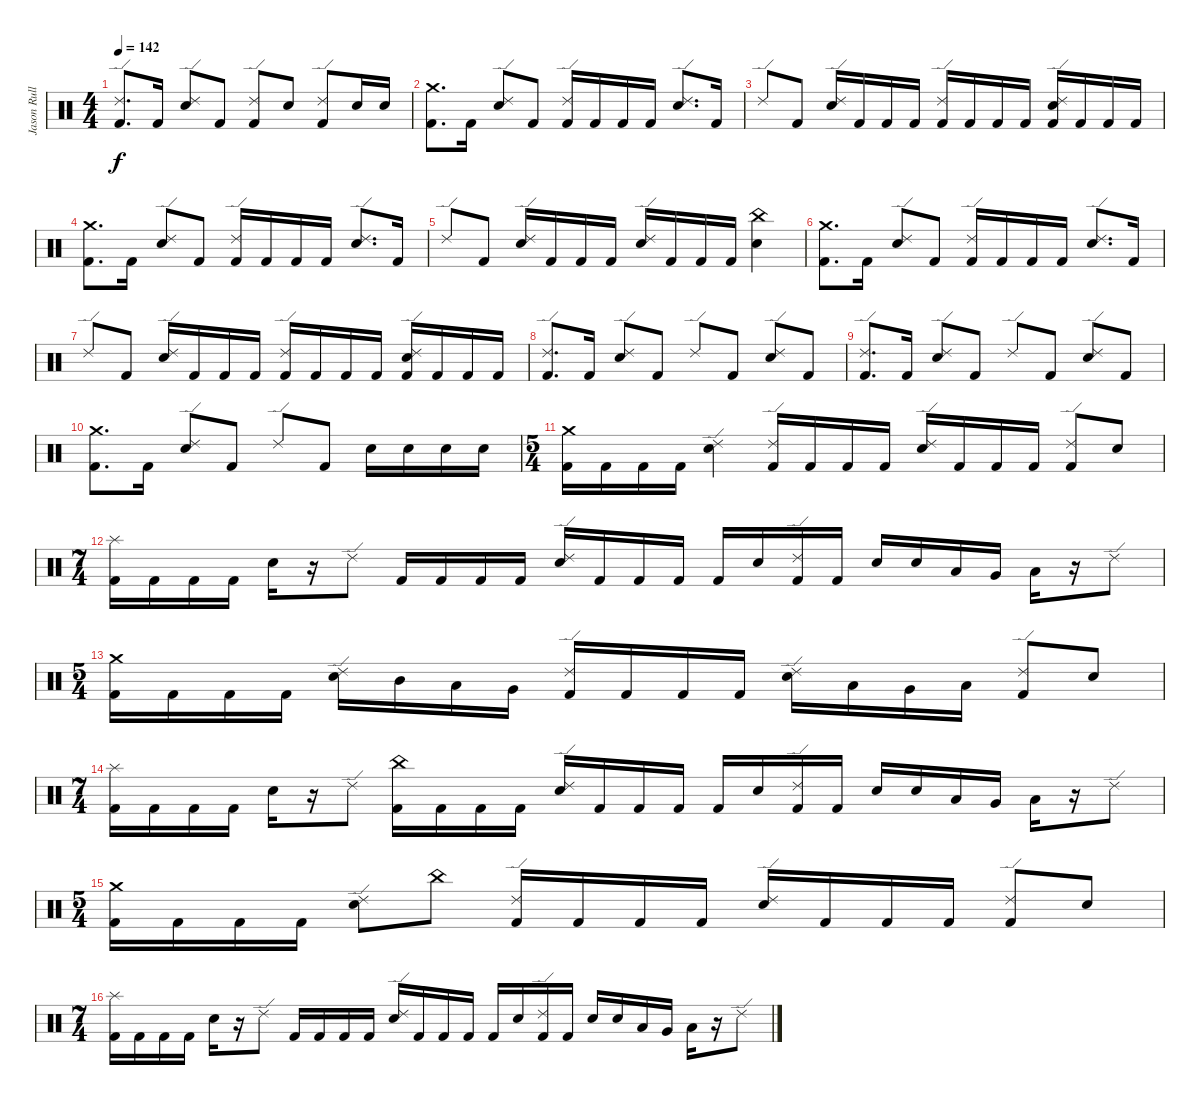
\track ("Jason Rullo (drums)" "Jason Rull") {solo instrument percussion}
\staff {score}
\articulation defaults
\ts (4 4)
\tempo 142
\clef neutral
\ks c
("Ride (edge) 2" "Kick (hit) 2").8{d dy f} "Kick (hit) 2".16 ("Ride (edge) 2" "Electric Snare (hit)").8 "Kick (hit) 2".8 ("Kick (hit) 2" "Ride (edge) 2").8 "Electric Snare (hit)".8 ("Ride (edge) 2" "Kick (hit) 2").8 "Electric Snare (hit)".16 "Electric Snare (hit)".16 |
("Crash medium (hit)" "Kick (hit) 2").8{d} "Kick (hit) 2".16 ("Ride (edge) 2" "Electric Snare (hit)").8 "Kick (hit) 2".8 ("Ride (edge) 2" "Kick (hit) 2").16 "Kick (hit) 2".16 "Kick (hit) 2".16 "Kick (hit) 2".16 ("Ride (edge) 2" "Electric Snare (hit)").8{d} "Kick (hit) 2".16 |
"Ride (edge) 2".8 "Kick (hit) 2".8 ("Electric Snare (hit)" "Ride (edge) 2").16 "Kick (hit) 2".16 "Kick (hit) 2".16 "Kick (hit) 2".16 ("Kick (hit) 2" "Ride (edge) 2").16 "Kick (hit) 2".16 "Kick (hit) 2".16 "Kick (hit) 2".16 ("Electric Snare (hit)" "Kick (hit) 2" "Ride (edge) 2").16 "Kick (hit) 2".16 "Kick (hit) 2".16 "Kick (hit) 2".16 |
("Crash medium (hit)" "Kick (hit) 2").8{d} "Kick (hit) 2".16 ("Ride (edge) 2" "Electric Snare (hit)").8 "Kick (hit) 2".8 ("Ride (edge) 2" "Kick (hit) 2").16 "Kick (hit) 2".16 "Kick (hit) 2".16 "Kick (hit) 2".16 ("Ride (edge) 2" "Electric Snare (hit)").8{d} "Kick (hit) 2".16 |
"Ride (edge) 2".8 "Kick (hit) 2".8 ("Electric Snare (hit)" "Ride (edge) 2").16 "Kick (hit) 2".16 "Kick (hit) 2".16 "Kick (hit) 2".16 ("Electric Snare (hit)" "Ride (edge) 2").16 "Kick (hit) 2".16 "Kick (hit) 2".16 "Kick (hit) 2".16 ("China (hit)" "Electric Snare (hit)").4 |
("Crash medium (hit)" "Kick (hit) 2").8{d} "Kick (hit) 2".16 ("Ride (edge) 2" "Electric Snare (hit)").8 "Kick (hit) 2".8 ("Ride (edge) 2" "Kick (hit) 2").16 "Kick (hit) 2".16 "Kick (hit) 2".16 "Kick (hit) 2".16 ("Ride (edge) 2" "Electric Snare (hit)").8{d} "Kick (hit) 2".16 |
"Ride (edge) 2".8 "Kick (hit) 2".8 ("Electric Snare (hit)" "Ride (edge) 2").16 "Kick (hit) 2".16 "Kick (hit) 2".16 "Kick (hit) 2".16 ("Kick (hit) 2" "Ride (edge) 2").16 "Kick (hit) 2".16 "Kick (hit) 2".16 "Kick (hit) 2".16 ("Electric Snare (hit)" "Kick (hit) 2" "Ride (edge) 2").16 "Kick (hit) 2".16 "Kick (hit) 2".16 "Kick (hit) 2".16 |
("Ride (edge) 2" "Kick (hit) 2").8{d} "Kick (hit) 2".16 ("Ride (edge) 2" "Electric Snare (hit)").8 "Kick (hit) 2".8 "Ride (edge) 2".8 "Kick (hit) 2".8 ("Ride (edge) 2" "Electric Snare (hit)").8 "Kick (hit) 2".8 |
("Ride (edge) 2" "Kick (hit) 2").8{d} "Kick (hit) 2".16 ("Ride (edge) 2" "Electric Snare (hit)").8 "Kick (hit) 2".8 "Ride (edge) 2".8 "Kick (hit) 2".8 ("Ride (edge) 2" "Electric Snare (hit)").8 "Kick (hit) 2".8 |
("Crash medium (hit)" "Kick (hit) 2").8{d} "Kick (hit) 2".16 ("Ride (edge) 2" "Electric Snare (hit)").8 "Kick (hit) 2".8 "Ride (edge) 2".8 "Kick (hit) 2".8 "Electric Snare (hit)".16 "Electric Snare (hit)".16 "Electric Snare (hit)".16 "Electric Snare (hit)".16 |
\ts (5 4)
("Crash medium (hit)" "Kick (hit) 2").16{volume 16 balance 8} "Kick (hit) 2".16 "Kick (hit) 2".16 "Kick (hit) 2".16 ("Ride (edge) 2" "Electric Snare (hit)").4 ("Ride (edge) 2" "Kick (hit) 2").16 "Kick (hit) 2".16 "Kick (hit) 2".16 "Kick (hit) 2".16 ("Ride (edge) 2" "Electric Snare (hit)").16 "Kick (hit) 2".16 "Kick (hit) 2".16 "Kick (hit) 2".16 ("Ride (edge) 2" "Kick (hit) 2").8 "Electric Snare (hit)".8 |
\ts (7 4)
("Splash (hit)" "Kick (hit) 2").16 "Kick (hit) 2".16 "Kick (hit) 2".16 "Kick (hit) 2".16 "Electric Snare (hit)".16 r.16 "Ride (edge) 2".8 "Kick (hit) 2".16 "Kick (hit) 2".16 "Kick (hit) 2".16 "Kick (hit) 2".16 ("Ride (edge) 2" "Electric Snare (hit)").16 "Kick (hit) 2".16 "Kick (hit) 2".16 "Kick (hit) 2".16 "Kick (hit) 2".16 "Electric Snare (hit)".16 ("Ride (edge) 2" "Kick (hit) 2").16 "Kick (hit) 2".16 "Electric Snare (hit)".16 "Electric Snare (hit)".16 "Low Tom (hit)".16 "Very Low Tom (hit)".16 "Low Floor Tom (hit)".16 r.16 "Ride (edge) 2".8 |
\ts (5 4)
("Crash medium (hit)" "Kick (hit) 2").16 "Kick (hit) 2".16 "Kick (hit) 2".16 "Kick (hit) 2".16 ("Ride (edge) 2" "Electric Snare (hit)").16 "Mid Tom (hit)".16 "Low Tom (hit)".16 "Very Low Tom (hit)".16 ("Ride (edge) 2" "Kick (hit) 2").16 "Kick (hit) 2".16 "Kick (hit) 2".16 "Kick (hit) 2".16 ("Ride (edge) 2" "Electric Snare (hit)").16 "Low Tom (hit)".16 "Very Low Tom (hit)".16 "Low Floor Tom (hit)".16 ("Ride (edge) 2" "Kick (hit) 2").8 "Electric Snare (hit)".8 |
\ts (7 4)
("Splash (hit)" "Kick (hit) 2").16 "Kick (hit) 2".16 "Kick (hit) 2".16 "Kick (hit) 2".16 "Electric Snare (hit)".16 r.16 "Ride (edge) 2".8 ("China (hit)" "Kick (hit) 2").16 "Kick (hit) 2".16 "Kick (hit) 2".16 "Kick (hit) 2".16 ("Ride (edge) 2" "Electric Snare (hit)").16 "Kick (hit) 2".16 "Kick (hit) 2".16 "Kick (hit) 2".16 "Kick (hit) 2".16 "Electric Snare (hit)".16 ("Ride (edge) 2" "Kick (hit) 2").16 "Kick (hit) 2".16 "Electric Snare (hit)".16 "Electric Snare (hit)".16 "Low Tom (hit)".16 "Very Low Tom (hit)".16 "Low Floor Tom (hit)".16 r.16 "Ride (edge) 2".8 |
\ts (5 4)
("Crash medium (hit)" "Kick (hit) 2").16 "Kick (hit) 2".16 "Kick (hit) 2".16 "Kick (hit) 2".16 ("Ride (edge) 2" "Electric Snare (hit)").8 "China (hit)".8 ("Ride (edge) 2" "Kick (hit) 2").16 "Kick (hit) 2".16 "Kick (hit) 2".16 "Kick (hit) 2".16 ("Ride (edge) 2" "Electric Snare (hit)").16 "Kick (hit) 2".16 "Kick (hit) 2".16 "Kick (hit) 2".16 ("Ride (edge) 2" "Kick (hit) 2").8 "Electric Snare (hit)".8 |
\ts (7 4)
("Splash (hit)" "Kick (hit) 2").16 "Kick (hit) 2".16 "Kick (hit) 2".16 "Kick (hit) 2".16 "Electric Snare (hit)".16 r.16 "Ride (edge) 2".8 "Kick (hit) 2".16 "Kick (hit) 2".16 "Kick (hit) 2".16 "Kick (hit) 2".16 ("Ride (edge) 2" "Electric Snare (hit)").16 "Kick (hit) 2".16 "Kick (hit) 2".16 "Kick (hit) 2".16 "Kick (hit) 2".16 "Electric Snare (hit)".16 ("Ride (edge) 2" "Kick (hit) 2").16 "Kick (hit) 2".16 "Electric Snare (hit)".16 "Electric Snare (hit)".16 "Low Tom (hit)".16 "Very Low Tom (hit)".16 "Low Floor Tom (hit)".16 r.16 "Ride (edge) 2".8
